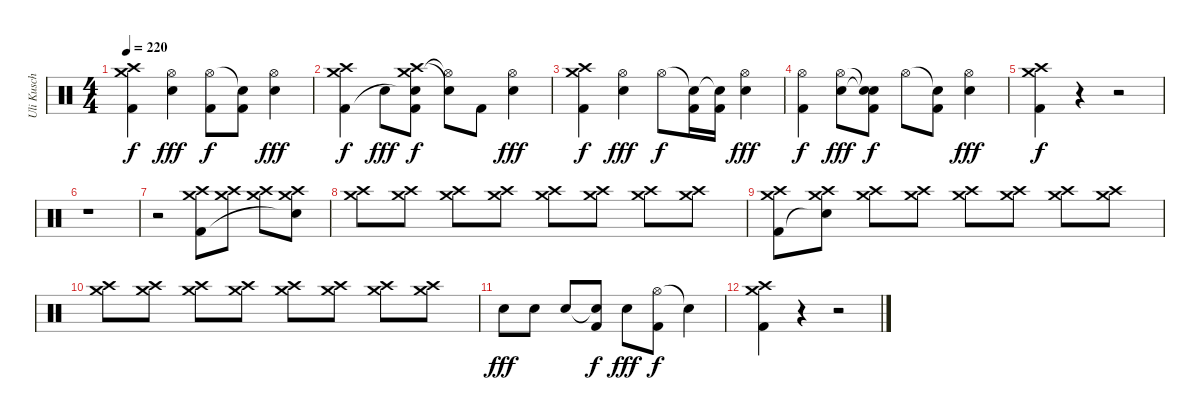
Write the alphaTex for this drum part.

\track ("Uli Kusch" "Uli Kusch") {instrument percussion}
\staff {score}
\articulation defaults
\ts (4 4)
\tempo 220
\clef neutral
\ks c
("Crash medium (hit)" "Crash high (hit)" "Kick (hit) 2").4{dy f} ("Hi-Hat (open)" "Electric Snare (hit)").4{dy fff} ("Hi-Hat (open)" "Kick (hit) 2").8{dy f} ("Snare (hit)"{t} "Kick (hit) 2").8 ("Hi-Hat (open)" "Electric Snare (hit)").4{dy fff} |
("Crash high (hit)" "Crash medium (hit)" "Kick (hit) 2").4{dy f} "Electric Snare (hit)".8{dy fff} ("Crash medium (hit)" "Crash high (hit)" "Snare (hit)"{t} "Kick (hit) 2").8{dy f} ("Hi-Hat (open)"{t} "Snare (hit)"{t}).8 "Kick (hit) 2".8 ("Hi-Hat (open)" "Electric Snare (hit)").4{dy fff} |
("Crash medium (hit)" "Crash high (hit)" "Kick (hit) 2").4{dy f} ("Hi-Hat (open)" "Electric Snare (hit)").4{dy fff} "Hi-Hat (open)".8{dy f} ("Snare (hit)"{t} "Kick (hit) 2").16 ("Snare (hit)"{t} "Kick (hit) 2").16 ("Hi-Hat (open)" "Electric Snare (hit)").4{dy fff} |
("Hi-Hat (open)" "Kick (hit) 2").4{dy f} ("Hi-Hat (open)" "Electric Snare (hit)").8{dy fff} ("Snare (hit)"{t} "Snare (hit)"{t} "Kick (hit) 2").8{dy f} "Hi-Hat (open)".8 ("Snare (hit)"{t} "Kick (hit) 2").8 ("Hi-Hat (open)" "Electric Snare (hit)").4{dy fff} |
("Crash medium (hit)" "Crash high (hit)" "Kick (hit) 2").4{dy f} r.4 r.2 |
r.1 |
r.2 ("Crash high (hit)" "Crash medium (hit)" "Kick (hit) 2").8 ("Crash high (hit)" "Crash medium (hit)").8 ("Crash high (hit)" "Crash medium (hit)").8 ("Crash high (hit)" "Crash medium (hit)" "Snare (hit)"{t}).8 |
("Crash high (hit)" "Crash medium (hit)").8 ("Crash high (hit)" "Crash medium (hit)").8 ("Crash high (hit)" "Crash medium (hit)").8 ("Crash high (hit)" "Crash medium (hit)").8 ("Crash high (hit)" "Crash medium (hit)").8 ("Crash high (hit)" "Crash medium (hit)").8 ("Crash high (hit)" "Crash medium (hit)").8 ("Crash high (hit)" "Crash medium (hit)").8 |
("Crash high (hit)" "Crash medium (hit)" "Kick (hit) 2").8 ("Crash high (hit)" "Crash medium (hit)" "Snare (hit)"{t}).8 ("Crash high (hit)" "Crash medium (hit)").8 ("Crash high (hit)" "Crash medium (hit)").8 ("Crash high (hit)" "Crash medium (hit)").8 ("Crash high (hit)" "Crash medium (hit)").8 ("Crash high (hit)" "Crash medium (hit)").8 ("Crash high (hit)" "Crash medium (hit)").8 |
("Crash high (hit)" "Crash medium (hit)").8 ("Crash high (hit)" "Crash medium (hit)").8 ("Crash high (hit)" "Crash medium (hit)").8 ("Crash high (hit)" "Crash medium (hit)").8 ("Crash high (hit)" "Crash medium (hit)").8 ("Crash high (hit)" "Crash medium (hit)").8 ("Crash high (hit)" "Crash medium (hit)").8 ("Crash high (hit)" "Crash medium (hit)").8 |
"Electric Snare (hit)".8{dy fff} "Electric Snare (hit)".8 "Electric Snare (hit)".8 ("Snare (hit)"{t} "Kick (hit) 2").8{dy f} "Electric Snare (hit)".8{dy fff} ("Hi-Hat (open)" "Kick (hit) 2").8{dy f} "Snare (hit)"{t}.4 |
("Crash medium (hit)" "Crash high (hit)" "Kick (hit) 2").4 r.4 r.2
